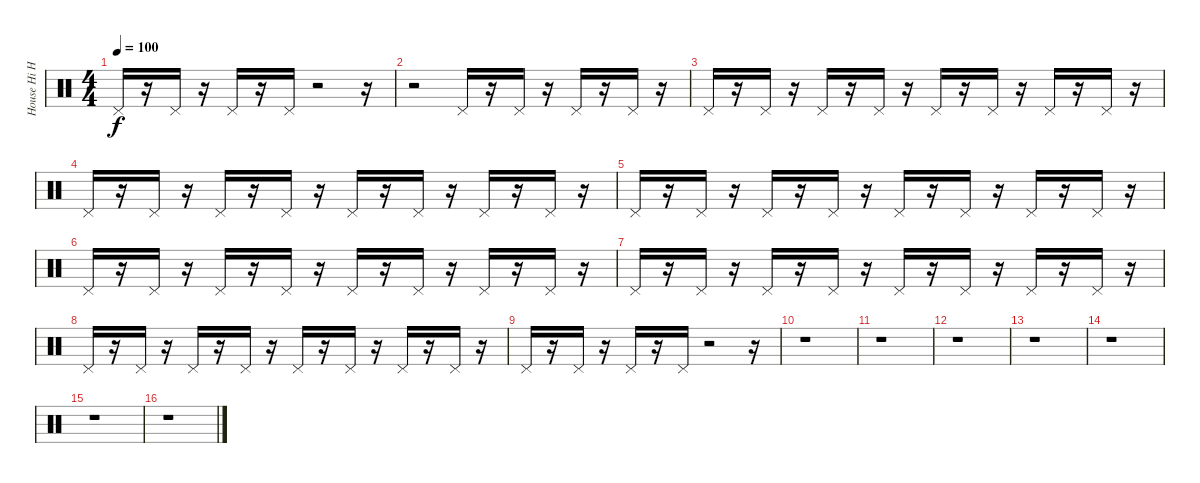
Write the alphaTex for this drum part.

\track ("House Hi Hat" "House Hi H") {instrument percussion}
\staff {score}
\articulation defaults
\ts (4 4)
\tempo 100
\clef neutral
\ks c "Pedal Hi-Hat (hit)".16{dy f}
r.16 "Pedal Hi-Hat (hit)".16 r.16 "Pedal Hi-Hat (hit)".16 r.16 "Pedal Hi-Hat (hit)".16 r.2 r.16 |
r.2 "Pedal Hi-Hat (hit)".16 r.16 "Pedal Hi-Hat (hit)".16 r.16 "Pedal Hi-Hat (hit)".16 r.16 "Pedal Hi-Hat (hit)".16 r.16 |
"Pedal Hi-Hat (hit)".16 r.16 "Pedal Hi-Hat (hit)".16 r.16 "Pedal Hi-Hat (hit)".16 r.16 "Pedal Hi-Hat (hit)".16 r.16 "Pedal Hi-Hat (hit)".16 r.16 "Pedal Hi-Hat (hit)".16 r.16 "Pedal Hi-Hat (hit)".16 r.16 "Pedal Hi-Hat (hit)".16 r.16 |
"Pedal Hi-Hat (hit)".16 r.16 "Pedal Hi-Hat (hit)".16 r.16 "Pedal Hi-Hat (hit)".16 r.16 "Pedal Hi-Hat (hit)".16 r.16 "Pedal Hi-Hat (hit)".16 r.16 "Pedal Hi-Hat (hit)".16 r.16 "Pedal Hi-Hat (hit)".16 r.16 "Pedal Hi-Hat (hit)".16 r.16 |
"Pedal Hi-Hat (hit)".16 r.16 "Pedal Hi-Hat (hit)".16 r.16 "Pedal Hi-Hat (hit)".16 r.16 "Pedal Hi-Hat (hit)".16 r.16 "Pedal Hi-Hat (hit)".16 r.16 "Pedal Hi-Hat (hit)".16 r.16 "Pedal Hi-Hat (hit)".16 r.16 "Pedal Hi-Hat (hit)".16 r.16 |
"Pedal Hi-Hat (hit)".16 r.16 "Pedal Hi-Hat (hit)".16 r.16 "Pedal Hi-Hat (hit)".16 r.16 "Pedal Hi-Hat (hit)".16 r.16 "Pedal Hi-Hat (hit)".16 r.16 "Pedal Hi-Hat (hit)".16 r.16 "Pedal Hi-Hat (hit)".16 r.16 "Pedal Hi-Hat (hit)".16 r.16 |
"Pedal Hi-Hat (hit)".16 r.16 "Pedal Hi-Hat (hit)".16 r.16 "Pedal Hi-Hat (hit)".16 r.16 "Pedal Hi-Hat (hit)".16 r.16 "Pedal Hi-Hat (hit)".16 r.16 "Pedal Hi-Hat (hit)".16 r.16 "Pedal Hi-Hat (hit)".16 r.16 "Pedal Hi-Hat (hit)".16 r.16 |
"Pedal Hi-Hat (hit)".16 r.16 "Pedal Hi-Hat (hit)".16 r.16 "Pedal Hi-Hat (hit)".16 r.16 "Pedal Hi-Hat (hit)".16 r.16 "Pedal Hi-Hat (hit)".16 r.16 "Pedal Hi-Hat (hit)".16 r.16 "Pedal Hi-Hat (hit)".16 r.16 "Pedal Hi-Hat (hit)".16 r.16 |
"Pedal Hi-Hat (hit)".16 r.16 "Pedal Hi-Hat (hit)".16 r.16 "Pedal Hi-Hat (hit)".16 r.16 "Pedal Hi-Hat (hit)".16 r.2 r.16 |
r.1 |
r.1 |
r.1 |
r.1 |
r.1 |
r.1 |
r.1
